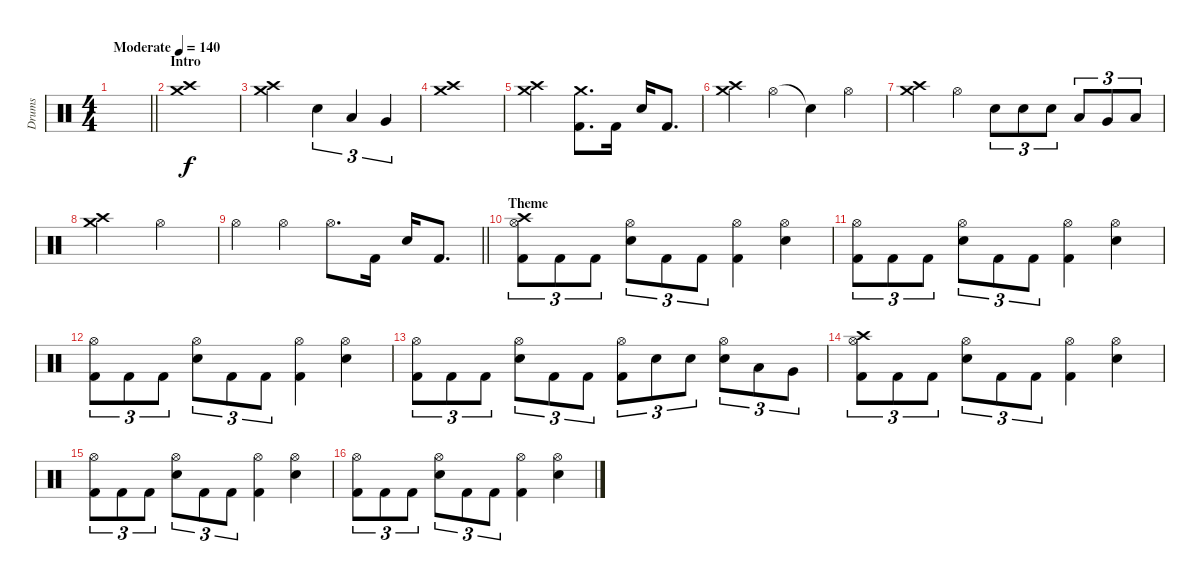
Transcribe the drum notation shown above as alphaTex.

\track ("Drums" "Drums") {instrument percussion}
\staff {score}
\articulation defaults
\ts (4 4)
\tempo (140 "Moderate")
\clef neutral
\barLineRight lightlight
\ks c
|
\section ("" "Intro")
("Crash medium (hit)" "Crash high (hit)").1 |
("Crash medium (hit)" "Crash high (hit)").2 "Snare (hit) 2".4{tu (3 2)} "Low Tom (hit)".4{tu (3 2)} "Very Low Tom (hit)".4{tu (3 2)} |
("Crash medium (hit)" "Crash high (hit)").1 |
("Crash medium (hit)" "Crash high (hit)").2 ("Kick (hit) 2" "Crash medium (hit)").8{d} "Kick (hit) 2".16 "Snare (hit) 2".16 "Kick (hit) 2".8{d} |
("Crash medium (hit)" "Crash high (hit)").4 "Hi-Hat (open)".4 "Snare (hit)"{t}.4 "Hi-Hat (open)".4 |
("Crash medium (hit)" "Crash high (hit)").4 "Hi-Hat (open)".4 "Snare (hit) 2".8{tu (3 2)} "Snare (hit) 2".8{tu (3 2)} "Snare (hit) 2".8{tu (3 2)} "Low Tom (hit)".8{tu (3 2)} "Very Low Tom (hit)".8{tu (3 2)} "Low Floor Tom (hit)".8{tu (3 2)} |
("Crash medium (hit)" "Crash high (hit)").2 "Hi-Hat (open)".2 |
\barLineRight lightlight "Hi-Hat (open)".4 "Hi-Hat (open)".4 "Hi-Hat (open)".8{d} "Kick (hit) 2".16 "Snare (hit) 2".16 "Kick (hit) 2".8{d}
|
\section ("" "Theme")
("Kick (hit) 2" "Hi-Hat (open)" "Crash high (hit)").8{tu (3 2)} "Kick (hit) 2".8{tu (3 2)} "Kick (hit) 2".8{tu (3 2)} ("Snare (hit) 2" "Hi-Hat (open)").8{tu (3 2)} "Kick (hit) 2".8{tu (3 2)} "Kick (hit) 2".8{tu (3 2)} ("Kick (hit) 2" "Hi-Hat (open)").4 ("Snare (hit) 2" "Hi-Hat (open)").4 |
("Kick (hit) 2" "Hi-Hat (open)").8{tu (3 2)} "Kick (hit) 2".8{tu (3 2)} "Kick (hit) 2".8{tu (3 2)} ("Snare (hit) 2" "Hi-Hat (open)").8{tu (3 2)} "Kick (hit) 2".8{tu (3 2)} "Kick (hit) 2".8{tu (3 2)} ("Kick (hit) 2" "Hi-Hat (open)").4 ("Snare (hit) 2" "Hi-Hat (open)").4 |
("Kick (hit) 2" "Hi-Hat (open)").8{tu (3 2)} "Kick (hit) 2".8{tu (3 2)} "Kick (hit) 2".8{tu (3 2)} ("Snare (hit) 2" "Hi-Hat (open)").8{tu (3 2)} "Kick (hit) 2".8{tu (3 2)} "Kick (hit) 2".8{tu (3 2)} ("Kick (hit) 2" "Hi-Hat (open)").4 ("Snare (hit) 2" "Hi-Hat (open)").4 |
("Kick (hit) 2" "Hi-Hat (open)").8{tu (3 2)} "Kick (hit) 2".8{tu (3 2)} "Kick (hit) 2".8{tu (3 2)} ("Snare (hit) 2" "Hi-Hat (open)").8{tu (3 2)} "Kick (hit) 2".8{tu (3 2)} "Kick (hit) 2".8{tu (3 2)} ("Kick (hit) 2" "Hi-Hat (open)").8{tu (3 2)} "Snare (hit) 2".8{tu (3 2)} "Snare (hit) 2".8{tu (3 2)} ("Snare (hit) 2" "Hi-Hat (open)").8{tu (3 2)} "Low Tom (hit)".8{tu (3 2)} "Very Low Tom (hit)".8{tu (3 2)} |
("Kick (hit) 2" "Hi-Hat (open)" "Crash high (hit)").8{tu (3 2)} "Kick (hit) 2".8{tu (3 2)} "Kick (hit) 2".8{tu (3 2)} ("Snare (hit) 2" "Hi-Hat (open)").8{tu (3 2)} "Kick (hit) 2".8{tu (3 2)} "Kick (hit) 2".8{tu (3 2)} ("Kick (hit) 2" "Hi-Hat (open)").4 ("Snare (hit) 2" "Hi-Hat (open)").4 |
("Kick (hit) 2" "Hi-Hat (open)").8{tu (3 2)} "Kick (hit) 2".8{tu (3 2)} "Kick (hit) 2".8{tu (3 2)} ("Snare (hit) 2" "Hi-Hat (open)").8{tu (3 2)} "Kick (hit) 2".8{tu (3 2)} "Kick (hit) 2".8{tu (3 2)} ("Kick (hit) 2" "Hi-Hat (open)").4 ("Snare (hit) 2" "Hi-Hat (open)").4 |
("Kick (hit) 2" "Hi-Hat (open)").8{tu (3 2)} "Kick (hit) 2".8{tu (3 2)} "Kick (hit) 2".8{tu (3 2)} ("Snare (hit) 2" "Hi-Hat (open)").8{tu (3 2)} "Kick (hit) 2".8{tu (3 2)} "Kick (hit) 2".8{tu (3 2)} ("Kick (hit) 2" "Hi-Hat (open)").4 ("Snare (hit) 2" "Hi-Hat (open)").4
